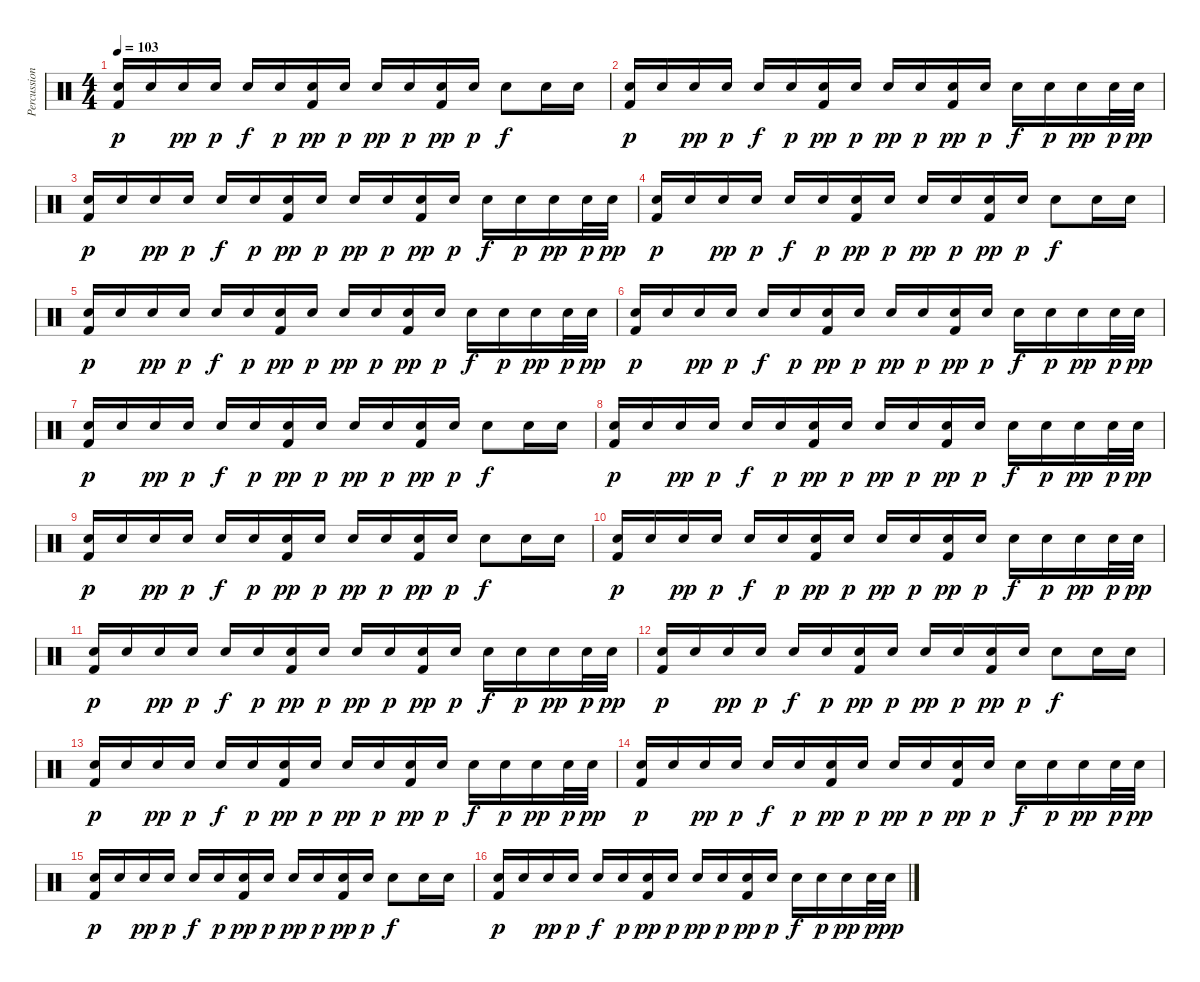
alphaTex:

\track ("Percussion" "Percussion") {instrument percussion}
\staff {score}
\articulation defaults
\ts (4 4)
\tempo 103
\clef neutral
\ks c
("Electric Snare (hit)" "Kick (hit) 2").16{dy p} "Electric Snare (hit)".16 "Electric Snare (hit)".16{dy pp} "Electric Snare (hit)".16{dy p} "Electric Snare (hit)".16{dy f} "Electric Snare (hit)".16{dy p} ("Electric Snare (hit)" "Kick (hit) 2").16{dy pp} "Electric Snare (hit)".16{dy p} "Electric Snare (hit)".16{dy pp} "Electric Snare (hit)".16{dy p} ("Electric Snare (hit)" "Kick (hit) 2").16{dy pp} "Electric Snare (hit)".16{dy p} "Electric Snare (hit)".8{dy f} "Electric Snare (hit)".16 "Electric Snare (hit)".16 |
("Electric Snare (hit)" "Kick (hit) 2").16{dy p} "Electric Snare (hit)".16 "Electric Snare (hit)".16{dy pp} "Electric Snare (hit)".16{dy p} "Electric Snare (hit)".16{dy f} "Electric Snare (hit)".16{dy p} ("Electric Snare (hit)" "Kick (hit) 2").16{dy pp} "Electric Snare (hit)".16{dy p} "Electric Snare (hit)".16{dy pp} "Electric Snare (hit)".16{dy p} ("Electric Snare (hit)" "Kick (hit) 2").16{dy pp} "Electric Snare (hit)".16{dy p} "Electric Snare (hit)".16{dy f} "Electric Snare (hit)".16{dy p} "Electric Snare (hit)".16{dy pp} "Electric Snare (hit)".32{dy p} "Electric Snare (hit)".32{dy pp} |
("Electric Snare (hit)" "Kick (hit) 2").16{dy p} "Electric Snare (hit)".16 "Electric Snare (hit)".16{dy pp} "Electric Snare (hit)".16{dy p} "Electric Snare (hit)".16{dy f} "Electric Snare (hit)".16{dy p} ("Electric Snare (hit)" "Kick (hit) 2").16{dy pp} "Electric Snare (hit)".16{dy p} "Electric Snare (hit)".16{dy pp} "Electric Snare (hit)".16{dy p} ("Electric Snare (hit)" "Kick (hit) 2").16{dy pp} "Electric Snare (hit)".16{dy p} "Electric Snare (hit)".16{dy f} "Electric Snare (hit)".16{dy p} "Electric Snare (hit)".16{dy pp} "Electric Snare (hit)".32{dy p} "Electric Snare (hit)".32{dy pp} |
("Electric Snare (hit)" "Kick (hit) 2").16{dy p} "Electric Snare (hit)".16 "Electric Snare (hit)".16{dy pp} "Electric Snare (hit)".16{dy p} "Electric Snare (hit)".16{dy f} "Electric Snare (hit)".16{dy p} ("Electric Snare (hit)" "Kick (hit) 2").16{dy pp} "Electric Snare (hit)".16{dy p} "Electric Snare (hit)".16{dy pp} "Electric Snare (hit)".16{dy p} ("Electric Snare (hit)" "Kick (hit) 2").16{dy pp} "Electric Snare (hit)".16{dy p} "Electric Snare (hit)".8{dy f} "Electric Snare (hit)".16 "Electric Snare (hit)".16 |
("Electric Snare (hit)" "Kick (hit) 2").16{dy p} "Electric Snare (hit)".16 "Electric Snare (hit)".16{dy pp} "Electric Snare (hit)".16{dy p} "Electric Snare (hit)".16{dy f} "Electric Snare (hit)".16{dy p} ("Electric Snare (hit)" "Kick (hit) 2").16{dy pp} "Electric Snare (hit)".16{dy p} "Electric Snare (hit)".16{dy pp} "Electric Snare (hit)".16{dy p} ("Electric Snare (hit)" "Kick (hit) 2").16{dy pp} "Electric Snare (hit)".16{dy p} "Electric Snare (hit)".16{dy f} "Electric Snare (hit)".16{dy p} "Electric Snare (hit)".16{dy pp} "Electric Snare (hit)".32{dy p} "Electric Snare (hit)".32{dy pp} |
("Electric Snare (hit)" "Kick (hit) 2").16{dy p} "Electric Snare (hit)".16 "Electric Snare (hit)".16{dy pp} "Electric Snare (hit)".16{dy p} "Electric Snare (hit)".16{dy f} "Electric Snare (hit)".16{dy p} ("Electric Snare (hit)" "Kick (hit) 2").16{dy pp} "Electric Snare (hit)".16{dy p} "Electric Snare (hit)".16{dy pp} "Electric Snare (hit)".16{dy p} ("Electric Snare (hit)" "Kick (hit) 2").16{dy pp} "Electric Snare (hit)".16{dy p} "Electric Snare (hit)".16{dy f} "Electric Snare (hit)".16{dy p} "Electric Snare (hit)".16{dy pp} "Electric Snare (hit)".32{dy p} "Electric Snare (hit)".32{dy pp} |
("Electric Snare (hit)" "Kick (hit) 2").16{dy p} "Electric Snare (hit)".16 "Electric Snare (hit)".16{dy pp} "Electric Snare (hit)".16{dy p} "Electric Snare (hit)".16{dy f} "Electric Snare (hit)".16{dy p} ("Electric Snare (hit)" "Kick (hit) 2").16{dy pp} "Electric Snare (hit)".16{dy p} "Electric Snare (hit)".16{dy pp} "Electric Snare (hit)".16{dy p} ("Electric Snare (hit)" "Kick (hit) 2").16{dy pp} "Electric Snare (hit)".16{dy p} "Electric Snare (hit)".8{dy f} "Electric Snare (hit)".16 "Electric Snare (hit)".16 |
("Electric Snare (hit)" "Kick (hit) 2").16{dy p} "Electric Snare (hit)".16 "Electric Snare (hit)".16{dy pp} "Electric Snare (hit)".16{dy p} "Electric Snare (hit)".16{dy f} "Electric Snare (hit)".16{dy p} ("Electric Snare (hit)" "Kick (hit) 2").16{dy pp} "Electric Snare (hit)".16{dy p} "Electric Snare (hit)".16{dy pp} "Electric Snare (hit)".16{dy p} ("Electric Snare (hit)" "Kick (hit) 2").16{dy pp} "Electric Snare (hit)".16{dy p} "Electric Snare (hit)".16{dy f} "Electric Snare (hit)".16{dy p} "Electric Snare (hit)".16{dy pp} "Electric Snare (hit)".32{dy p} "Electric Snare (hit)".32{dy pp} |
("Electric Snare (hit)" "Kick (hit) 2").16{dy p} "Electric Snare (hit)".16 "Electric Snare (hit)".16{dy pp} "Electric Snare (hit)".16{dy p} "Electric Snare (hit)".16{dy f} "Electric Snare (hit)".16{dy p} ("Electric Snare (hit)" "Kick (hit) 2").16{dy pp} "Electric Snare (hit)".16{dy p} "Electric Snare (hit)".16{dy pp} "Electric Snare (hit)".16{dy p} ("Electric Snare (hit)" "Kick (hit) 2").16{dy pp} "Electric Snare (hit)".16{dy p} "Electric Snare (hit)".8{dy f} "Electric Snare (hit)".16 "Electric Snare (hit)".16 |
("Electric Snare (hit)" "Kick (hit) 2").16{dy p} "Electric Snare (hit)".16 "Electric Snare (hit)".16{dy pp} "Electric Snare (hit)".16{dy p} "Electric Snare (hit)".16{dy f} "Electric Snare (hit)".16{dy p} ("Electric Snare (hit)" "Kick (hit) 2").16{dy pp} "Electric Snare (hit)".16{dy p} "Electric Snare (hit)".16{dy pp} "Electric Snare (hit)".16{dy p} ("Electric Snare (hit)" "Kick (hit) 2").16{dy pp} "Electric Snare (hit)".16{dy p} "Electric Snare (hit)".16{dy f} "Electric Snare (hit)".16{dy p} "Electric Snare (hit)".16{dy pp} "Electric Snare (hit)".32{dy p} "Electric Snare (hit)".32{dy pp} |
("Electric Snare (hit)" "Kick (hit) 2").16{dy p} "Electric Snare (hit)".16 "Electric Snare (hit)".16{dy pp} "Electric Snare (hit)".16{dy p} "Electric Snare (hit)".16{dy f} "Electric Snare (hit)".16{dy p} ("Electric Snare (hit)" "Kick (hit) 2").16{dy pp} "Electric Snare (hit)".16{dy p} "Electric Snare (hit)".16{dy pp} "Electric Snare (hit)".16{dy p} ("Electric Snare (hit)" "Kick (hit) 2").16{dy pp} "Electric Snare (hit)".16{dy p} "Electric Snare (hit)".16{dy f} "Electric Snare (hit)".16{dy p} "Electric Snare (hit)".16{dy pp} "Electric Snare (hit)".32{dy p} "Electric Snare (hit)".32{dy pp} |
("Electric Snare (hit)" "Kick (hit) 2").16{dy p} "Electric Snare (hit)".16 "Electric Snare (hit)".16{dy pp} "Electric Snare (hit)".16{dy p} "Electric Snare (hit)".16{dy f} "Electric Snare (hit)".16{dy p} ("Electric Snare (hit)" "Kick (hit) 2").16{dy pp} "Electric Snare (hit)".16{dy p} "Electric Snare (hit)".16{dy pp} "Electric Snare (hit)".16{dy p} ("Electric Snare (hit)" "Kick (hit) 2").16{dy pp} "Electric Snare (hit)".16{dy p} "Electric Snare (hit)".8{dy f} "Electric Snare (hit)".16 "Electric Snare (hit)".16 |
("Electric Snare (hit)" "Kick (hit) 2").16{dy p} "Electric Snare (hit)".16 "Electric Snare (hit)".16{dy pp} "Electric Snare (hit)".16{dy p} "Electric Snare (hit)".16{dy f} "Electric Snare (hit)".16{dy p} ("Electric Snare (hit)" "Kick (hit) 2").16{dy pp} "Electric Snare (hit)".16{dy p} "Electric Snare (hit)".16{dy pp} "Electric Snare (hit)".16{dy p} ("Electric Snare (hit)" "Kick (hit) 2").16{dy pp} "Electric Snare (hit)".16{dy p} "Electric Snare (hit)".16{dy f} "Electric Snare (hit)".16{dy p} "Electric Snare (hit)".16{dy pp} "Electric Snare (hit)".32{dy p} "Electric Snare (hit)".32{dy pp} |
("Electric Snare (hit)" "Kick (hit) 2").16{dy p} "Electric Snare (hit)".16 "Electric Snare (hit)".16{dy pp} "Electric Snare (hit)".16{dy p} "Electric Snare (hit)".16{dy f} "Electric Snare (hit)".16{dy p} ("Electric Snare (hit)" "Kick (hit) 2").16{dy pp} "Electric Snare (hit)".16{dy p} "Electric Snare (hit)".16{dy pp} "Electric Snare (hit)".16{dy p} ("Electric Snare (hit)" "Kick (hit) 2").16{dy pp} "Electric Snare (hit)".16{dy p} "Electric Snare (hit)".16{dy f} "Electric Snare (hit)".16{dy p} "Electric Snare (hit)".16{dy pp} "Electric Snare (hit)".32{dy p} "Electric Snare (hit)".32{dy pp} |
("Electric Snare (hit)" "Kick (hit) 2").16{dy p} "Electric Snare (hit)".16 "Electric Snare (hit)".16{dy pp} "Electric Snare (hit)".16{dy p} "Electric Snare (hit)".16{dy f} "Electric Snare (hit)".16{dy p} ("Electric Snare (hit)" "Kick (hit) 2").16{dy pp} "Electric Snare (hit)".16{dy p} "Electric Snare (hit)".16{dy pp} "Electric Snare (hit)".16{dy p} ("Electric Snare (hit)" "Kick (hit) 2").16{dy pp} "Electric Snare (hit)".16{dy p} "Electric Snare (hit)".8{dy f} "Electric Snare (hit)".16 "Electric Snare (hit)".16 |
("Electric Snare (hit)" "Kick (hit) 2").16{dy p} "Electric Snare (hit)".16 "Electric Snare (hit)".16{dy pp} "Electric Snare (hit)".16{dy p} "Electric Snare (hit)".16{dy f} "Electric Snare (hit)".16{dy p} ("Electric Snare (hit)" "Kick (hit) 2").16{dy pp} "Electric Snare (hit)".16{dy p} "Electric Snare (hit)".16{dy pp} "Electric Snare (hit)".16{dy p} ("Electric Snare (hit)" "Kick (hit) 2").16{dy pp} "Electric Snare (hit)".16{dy p} "Electric Snare (hit)".16{dy f} "Electric Snare (hit)".16{dy p} "Electric Snare (hit)".16{dy pp} "Electric Snare (hit)".32{dy p} "Electric Snare (hit)".32{dy pp}
